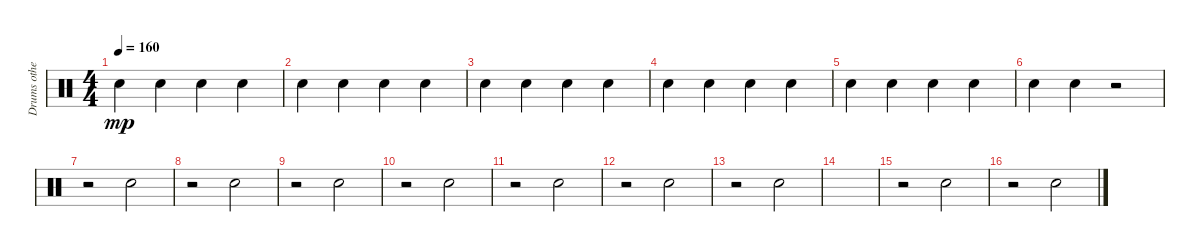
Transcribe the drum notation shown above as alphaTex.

\track ("Drums others" "Drums othe") {instrument percussion}
\staff {score}
\articulation defaults
\ts (4 4)
\tempo 160
\clef neutral
\ks c "Snare (hit) 2".4{dy mp} "Snare (hit) 2".4 "Snare (hit) 2".4 "Snare (hit) 2".4
|
"Snare (hit) 2".4 "Snare (hit) 2".4 "Snare (hit) 2".4 "Snare (hit) 2".4 |
"Snare (hit) 2".4 "Snare (hit) 2".4 "Snare (hit) 2".4 "Snare (hit) 2".4 |
"Snare (hit) 2".4 "Snare (hit) 2".4 "Snare (hit) 2".4 "Snare (hit) 2".4 |
"Snare (hit) 2".4 "Snare (hit) 2".4 "Snare (hit) 2".4 "Snare (hit) 2".4 |
"Snare (hit) 2".4 "Snare (hit) 2".4 r.2 |
r.2 "Snare (hit) 2".2 |
r.2 "Snare (hit) 2".2 |
r.2 "Snare (hit) 2".2 |
r.2 "Snare (hit) 2".2 |
r.2 "Snare (hit) 2".2 |
r.2 "Snare (hit) 2".2 |
r.2 "Snare (hit) 2".2 |
|
r.2 "Snare (hit) 2".2 |
r.2 "Snare (hit) 2".2
